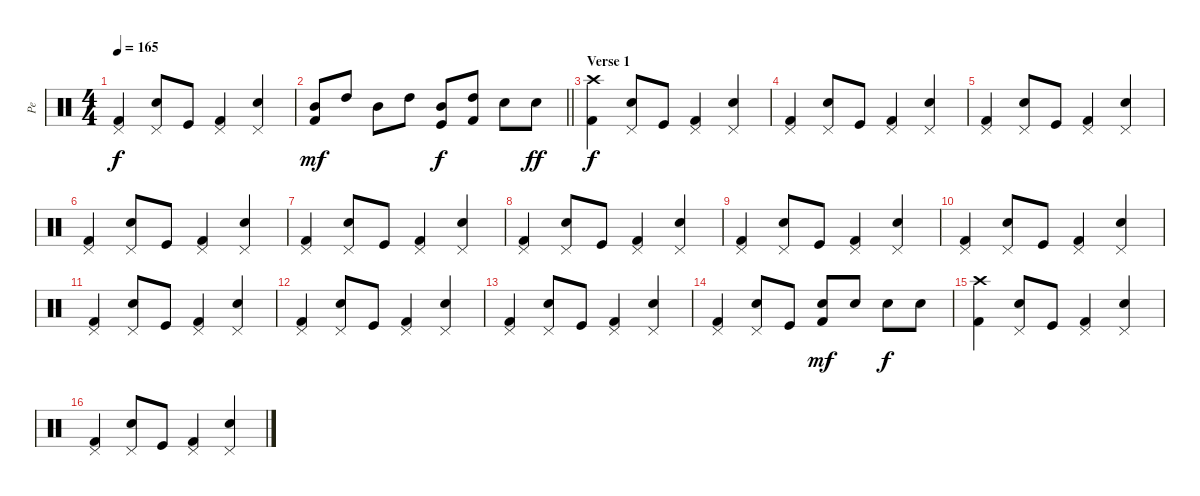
\track ("Pe" "Pe") {instrument percussion}
\staff {score}
\articulation defaults
\ts (4 4)
\tempo 165
\clef neutral
\ks c
("Kick (hit) 2" "Pedal Hi-Hat (hit)").4{dy f} ("Electric Snare (hit)" "Pedal Hi-Hat (hit)").8 "Kick (hit)".8 ("Kick (hit) 2" "Pedal Hi-Hat (hit)").4 ("Electric Snare (hit)" "Pedal Hi-Hat (hit)").4 |
\barLineRight lightlight
("Kick (hit) 2" "Mid Tom (hit)").8{dy mf} "High Tom (hit)".8 "Mid Tom (hit)".8 "High Tom (hit)".8 ("Kick (hit)" "Mid Tom (hit)").8{dy f} ("Kick (hit) 2" "High Tom (hit)").8 "Electric Snare (hit)".8 "Electric Snare (hit)".8{dy ff} |
\section ("" "Verse 1")
("Kick (hit) 2" "Crash high (hit)").4{dy f} ("Electric Snare (hit)" "Pedal Hi-Hat (hit)").8 "Kick (hit)".8 ("Kick (hit) 2" "Pedal Hi-Hat (hit)").4 ("Electric Snare (hit)" "Pedal Hi-Hat (hit)").4 |
("Kick (hit) 2" "Pedal Hi-Hat (hit)").4 ("Electric Snare (hit)" "Pedal Hi-Hat (hit)").8 "Kick (hit)".8 ("Kick (hit) 2" "Pedal Hi-Hat (hit)").4 ("Electric Snare (hit)" "Pedal Hi-Hat (hit)").4 |
("Kick (hit) 2" "Pedal Hi-Hat (hit)").4 ("Electric Snare (hit)" "Pedal Hi-Hat (hit)").8 "Kick (hit)".8 ("Kick (hit) 2" "Pedal Hi-Hat (hit)").4 ("Electric Snare (hit)" "Pedal Hi-Hat (hit)").4 |
("Kick (hit) 2" "Pedal Hi-Hat (hit)").4 ("Electric Snare (hit)" "Pedal Hi-Hat (hit)").8 "Kick (hit)".8 ("Kick (hit) 2" "Pedal Hi-Hat (hit)").4 ("Electric Snare (hit)" "Pedal Hi-Hat (hit)").4 |
("Kick (hit) 2" "Pedal Hi-Hat (hit)").4 ("Electric Snare (hit)" "Pedal Hi-Hat (hit)").8 "Kick (hit)".8 ("Kick (hit) 2" "Pedal Hi-Hat (hit)").4 ("Electric Snare (hit)" "Pedal Hi-Hat (hit)").4 |
("Kick (hit) 2" "Pedal Hi-Hat (hit)").4 ("Electric Snare (hit)" "Pedal Hi-Hat (hit)").8 "Kick (hit)".8 ("Kick (hit) 2" "Pedal Hi-Hat (hit)").4 ("Electric Snare (hit)" "Pedal Hi-Hat (hit)").4 |
("Kick (hit) 2" "Pedal Hi-Hat (hit)").4 ("Electric Snare (hit)" "Pedal Hi-Hat (hit)").8 "Kick (hit)".8 ("Kick (hit) 2" "Pedal Hi-Hat (hit)").4 ("Electric Snare (hit)" "Pedal Hi-Hat (hit)").4 |
("Kick (hit) 2" "Pedal Hi-Hat (hit)").4 ("Electric Snare (hit)" "Pedal Hi-Hat (hit)").8 "Kick (hit)".8 ("Kick (hit) 2" "Pedal Hi-Hat (hit)").4 ("Electric Snare (hit)" "Pedal Hi-Hat (hit)").4 |
("Kick (hit) 2" "Pedal Hi-Hat (hit)").4 ("Electric Snare (hit)" "Pedal Hi-Hat (hit)").8 "Kick (hit)".8 ("Kick (hit) 2" "Pedal Hi-Hat (hit)").4 ("Electric Snare (hit)" "Pedal Hi-Hat (hit)").4 |
("Kick (hit) 2" "Pedal Hi-Hat (hit)").4 ("Electric Snare (hit)" "Pedal Hi-Hat (hit)").8 "Kick (hit)".8 ("Kick (hit) 2" "Pedal Hi-Hat (hit)").4 ("Electric Snare (hit)" "Pedal Hi-Hat (hit)").4 |
("Kick (hit) 2" "Pedal Hi-Hat (hit)").4 ("Electric Snare (hit)" "Pedal Hi-Hat (hit)").8 "Kick (hit)".8 ("Kick (hit) 2" "Pedal Hi-Hat (hit)").4 ("Electric Snare (hit)" "Pedal Hi-Hat (hit)").4 |
("Kick (hit) 2" "Pedal Hi-Hat (hit)").4 ("Electric Snare (hit)" "Pedal Hi-Hat (hit)").8 "Kick (hit)".8 ("Kick (hit) 2" "Electric Snare (hit)").8{dy mf} "Electric Snare (hit)".8 "Electric Snare (hit)".8{dy f} "Electric Snare (hit)".8 |
("Kick (hit) 2" "Crash high (hit)").4 ("Electric Snare (hit)" "Pedal Hi-Hat (hit)").8 "Kick (hit)".8 ("Kick (hit) 2" "Pedal Hi-Hat (hit)").4 ("Electric Snare (hit)" "Pedal Hi-Hat (hit)").4 |
("Kick (hit) 2" "Pedal Hi-Hat (hit)").4 ("Electric Snare (hit)" "Pedal Hi-Hat (hit)").8 "Kick (hit)".8 ("Kick (hit) 2" "Pedal Hi-Hat (hit)").4 ("Electric Snare (hit)" "Pedal Hi-Hat (hit)").4
